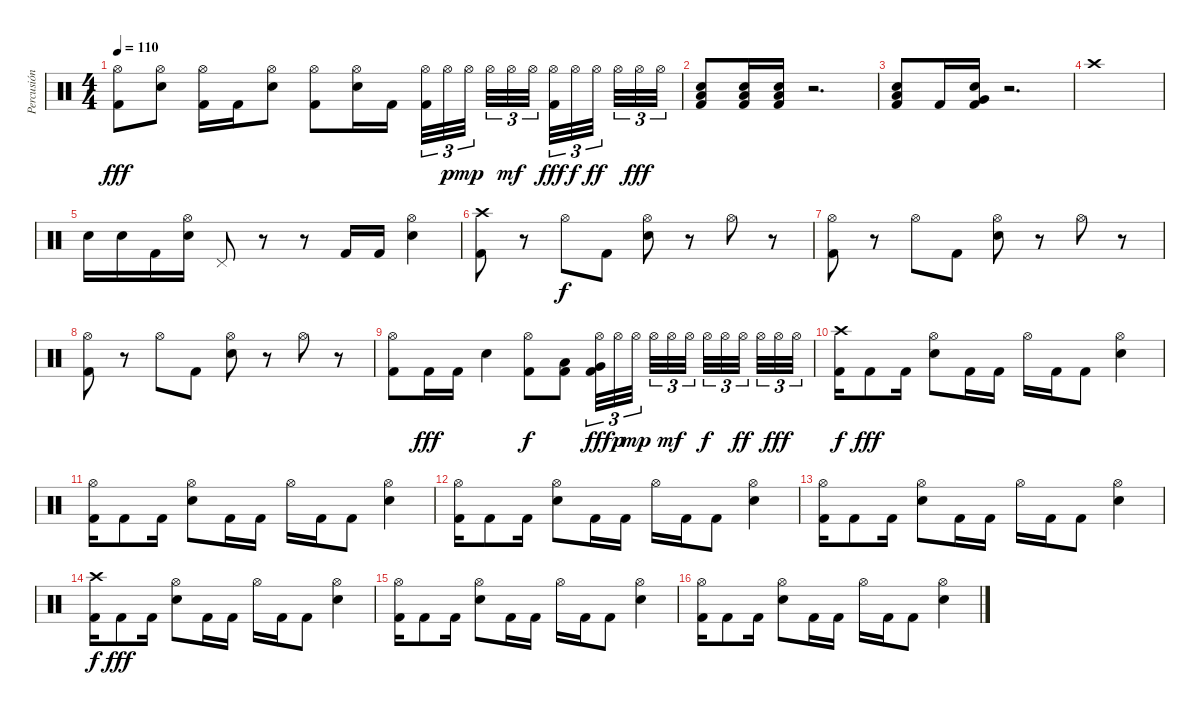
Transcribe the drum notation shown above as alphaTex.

\track ("Percusión" "Percusión") {instrument percussion}
\staff {score}
\articulation defaults
\ts (4 4)
\tempo 110
\clef neutral
\ks c
("Hi-Hat (open)" "Kick (hit) 2").8{dy fff} ("Hi-Hat (open)" "Electric Snare (hit)").8 ("Hi-Hat (open)" "Kick (hit) 2").16 "Kick (hit) 2".16 ("Hi-Hat (open)" "Electric Snare (hit)").8 ("Hi-Hat (open)" "Kick (hit) 2").8 ("Hi-Hat (open)" "Electric Snare (hit)").16 "Kick (hit) 2".16 ("Hi-Hat (open)" "Kick (hit) 2").32{tu (3 2)} "Hi-Hat (open)".32{tu (3 2) dy p} "Hi-Hat (open)".32{tu (3 2) dy mp beam splitsecondary} "Hi-Hat (open)".32{tu (3 2)} "Hi-Hat (open)".32{tu (3 2) dy mf} "Hi-Hat (open)".32{tu (3 2) beam splitsecondary} ("Hi-Hat (open)" "Kick (hit) 2").32{tu (3 2) dy fff} "Hi-Hat (open)".32{tu (3 2) dy f} "Hi-Hat (open)".32{tu (3 2) dy ff beam splitsecondary} "Hi-Hat (open)".32{tu (3 2)} "Hi-Hat (open)".32{tu (3 2) dy fff} "Hi-Hat (open)".32{tu (3 2)} |
("Electric Snare (hit)" "Low Floor Tom (hit)" "Kick (hit) 2").8 ("Electric Snare (hit)" "Low Floor Tom (hit)" "Kick (hit) 2").16 ("Electric Snare (hit)" "Low Floor Tom (hit)" "Kick (hit) 2").16 r.2{d} |
("Electric Snare (hit)" "Low Floor Tom (hit)" "Kick (hit) 2").8 "Kick (hit) 2".16 ("Electric Snare (hit)" "Very Low Tom (hit)" "Kick (hit) 2").16 r.2{d} |
"Crash high (hit)".1 |
"Electric Snare (hit)".16 "Electric Snare (hit)".16 "Kick (hit) 2".16 ("Hi-Hat (open)" "Electric Snare (hit)").16 "Pedal Hi-Hat (hit)".8 r.8 r.8 "Kick (hit) 2".16 "Kick (hit) 2".16 ("Hi-Hat (open)" "Electric Snare (hit)").4 |
("Crash high (hit)" "Kick (hit) 2").8 r.8 "Hi-Hat (open)".8{dy f} "Kick (hit) 2".8 ("Hi-Hat (open)" "Electric Snare (hit)").8 r.8 "Hi-Hat (open)".8 r.8 |
("Hi-Hat (open)" "Kick (hit) 2").8 r.8 "Hi-Hat (open)".8 "Kick (hit) 2".8 ("Hi-Hat (open)" "Electric Snare (hit)").8 r.8 "Hi-Hat (open)".8 r.8 |
("Hi-Hat (open)" "Kick (hit) 2").8 r.8 "Hi-Hat (open)".8 "Kick (hit) 2".8 ("Hi-Hat (open)" "Electric Snare (hit)").8 r.8 "Hi-Hat (open)".8 r.8 |
("Hi-Hat (open)" "Kick (hit) 2").8 "Kick (hit) 2".16{dy fff} "Kick (hit) 2".16 "Electric Snare (hit)".4 ("Hi-Hat (open)" "Kick (hit) 2").8{dy f} ("Low Tom (hit)" "Kick (hit) 2").8 ("Hi-Hat (open)" "Very Low Tom (hit)" "Kick (hit) 2").32{tu (3 2) dy fff} "Hi-Hat (open)".32{tu (3 2) dy p} "Hi-Hat (open)".32{tu (3 2) dy mp beam splitsecondary} "Hi-Hat (open)".32{tu (3 2)} "Hi-Hat (open)".32{tu (3 2) dy mf} "Hi-Hat (open)".32{tu (3 2) beam splitsecondary} "Hi-Hat (open)".32{tu (3 2) dy f} "Hi-Hat (open)".32{tu (3 2)} "Hi-Hat (open)".32{tu (3 2) dy ff beam splitsecondary} "Hi-Hat (open)".32{tu (3 2)} "Hi-Hat (open)".32{tu (3 2) dy fff} "Hi-Hat (open)".32{tu (3 2)} |
("Crash high (hit)" "Kick (hit) 2").16{dy f} "Kick (hit) 2".8{dy fff} "Kick (hit) 2".16 ("Hi-Hat (open)" "Electric Snare (hit)").8 "Kick (hit) 2".16 "Kick (hit) 2".16 "Hi-Hat (open)".16 "Kick (hit) 2".16 "Kick (hit) 2".8 ("Hi-Hat (open)" "Electric Snare (hit)").4 |
("Hi-Hat (open)" "Kick (hit) 2").16 "Kick (hit) 2".8 "Kick (hit) 2".16 ("Hi-Hat (open)" "Electric Snare (hit)").8 "Kick (hit) 2".16 "Kick (hit) 2".16 "Hi-Hat (open)".16 "Kick (hit) 2".16 "Kick (hit) 2".8 ("Hi-Hat (open)" "Electric Snare (hit)").4 |
("Hi-Hat (open)" "Kick (hit) 2").16 "Kick (hit) 2".8 "Kick (hit) 2".16 ("Hi-Hat (open)" "Electric Snare (hit)").8 "Kick (hit) 2".16 "Kick (hit) 2".16 "Hi-Hat (open)".16 "Kick (hit) 2".16 "Kick (hit) 2".8 ("Hi-Hat (open)" "Electric Snare (hit)").4 |
("Hi-Hat (open)" "Kick (hit) 2").16 "Kick (hit) 2".8 "Kick (hit) 2".16 ("Hi-Hat (open)" "Electric Snare (hit)").8 "Kick (hit) 2".16 "Kick (hit) 2".16 "Hi-Hat (open)".16 "Kick (hit) 2".16 "Kick (hit) 2".8 ("Hi-Hat (open)" "Electric Snare (hit)").4 |
("Crash high (hit)" "Kick (hit) 2").16{dy f} "Kick (hit) 2".8{dy fff} "Kick (hit) 2".16 ("Hi-Hat (open)" "Electric Snare (hit)").8 "Kick (hit) 2".16 "Kick (hit) 2".16 "Hi-Hat (open)".16 "Kick (hit) 2".16 "Kick (hit) 2".8 ("Hi-Hat (open)" "Electric Snare (hit)").4 |
("Hi-Hat (open)" "Kick (hit) 2").16 "Kick (hit) 2".8 "Kick (hit) 2".16 ("Hi-Hat (open)" "Electric Snare (hit)").8 "Kick (hit) 2".16 "Kick (hit) 2".16 "Hi-Hat (open)".16 "Kick (hit) 2".16 "Kick (hit) 2".8 ("Hi-Hat (open)" "Electric Snare (hit)").4 |
("Hi-Hat (open)" "Kick (hit) 2").16 "Kick (hit) 2".8 "Kick (hit) 2".16 ("Hi-Hat (open)" "Electric Snare (hit)").8 "Kick (hit) 2".16 "Kick (hit) 2".16 "Hi-Hat (open)".16 "Kick (hit) 2".16 "Kick (hit) 2".8 ("Hi-Hat (open)" "Electric Snare (hit)").4
